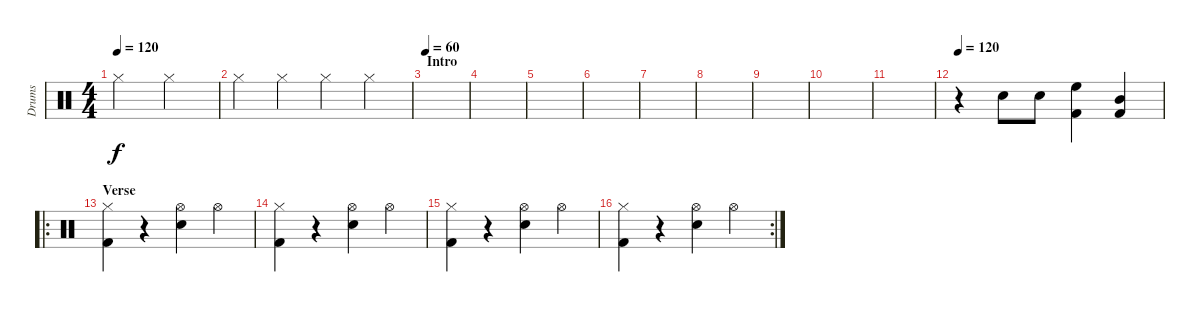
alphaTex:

\track ("Drums" "Drums") {instrument percussion}
\staff {score}
\articulation defaults
\ts (4 4)
\tempo 120
\clef neutral
\ks c "Hi-Hat (closed)".2{dy f} "Hi-Hat (closed)".2
|
"Hi-Hat (closed)".4 "Hi-Hat (closed)".4 "Hi-Hat (closed)".4 "Hi-Hat (closed)".4 |
\section ("" "Intro")
\tempo 60
|
|
|
|
|
|
|
|
|
\tempo 120
r.4 "Snare (hit) 2".8 "Snare (hit) 2".8 ("High Floor Tom (hit)" "Kick (hit) 2").4 ("Mid Tom (hit)" "Kick (hit) 2").4 |
\ro
\section ("" "Verse")
("Hi-Hat (closed)" "Kick (hit) 2").4 r.4 ("Hi-Hat (open)" "Snare (hit) 2").4 "Hi-Hat (open)".4 |
("Hi-Hat (closed)" "Kick (hit) 2").4 r.4 ("Hi-Hat (open)" "Snare (hit) 2").4 "Hi-Hat (open)".4 |
("Hi-Hat (closed)" "Kick (hit) 2").4 r.4 ("Hi-Hat (open)" "Snare (hit) 2").4 "Hi-Hat (open)".4 |
\rc 2
("Hi-Hat (closed)" "Kick (hit) 2").4 r.4 ("Hi-Hat (open)" "Snare (hit) 2").4 "Hi-Hat (open)".4
